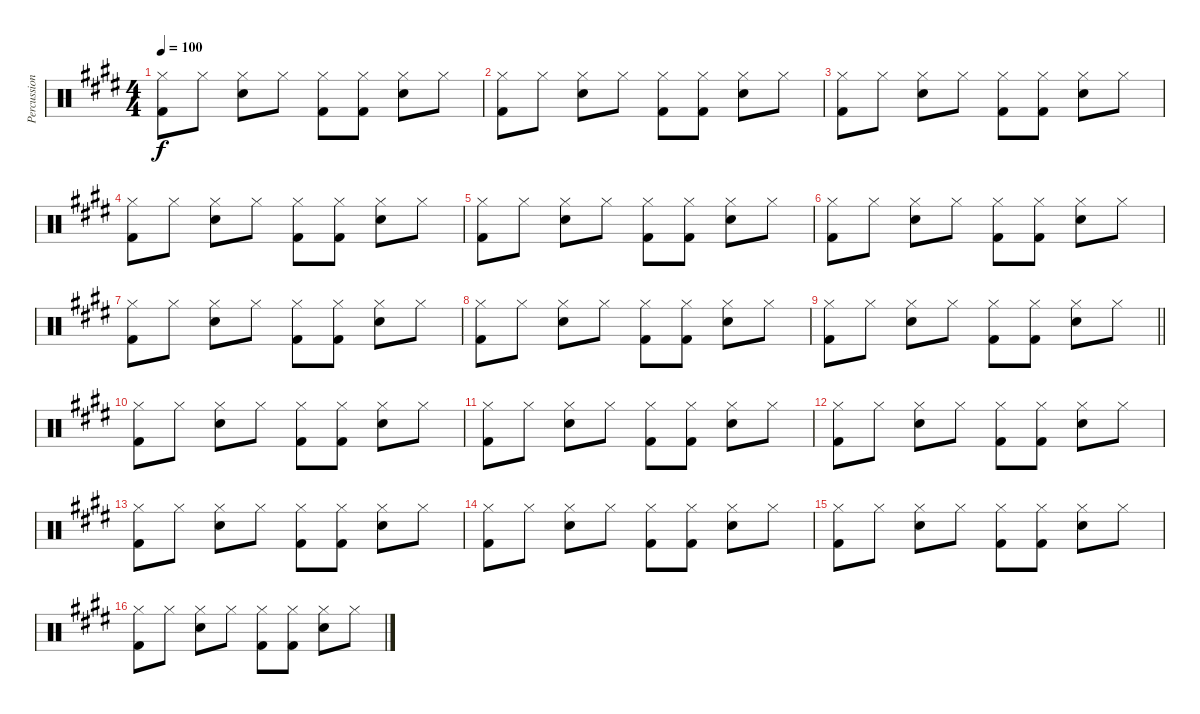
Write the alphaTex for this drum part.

\track ("Percussion" "Percussion") {instrument percussion}
\staff {score}
\articulation defaults
\ts (4 4)
\tempo 100
\clef neutral
\ks e
("Hi-Hat (closed)" "Kick (hit) 2").8{dy f} "Hi-Hat (closed)".8 ("Hi-Hat (closed)" "Snare (hit) 2").8 "Hi-Hat (closed)".8 ("Hi-Hat (closed)" "Kick (hit) 2").8 ("Hi-Hat (closed)" "Kick (hit) 2").8 ("Hi-Hat (closed)" "Snare (hit) 2").8 "Hi-Hat (closed)".8 |
("Hi-Hat (closed)" "Kick (hit) 2").8 "Hi-Hat (closed)".8 ("Hi-Hat (closed)" "Snare (hit) 2").8 "Hi-Hat (closed)".8 ("Hi-Hat (closed)" "Kick (hit) 2").8 ("Hi-Hat (closed)" "Kick (hit) 2").8 ("Hi-Hat (closed)" "Snare (hit) 2").8 "Hi-Hat (closed)".8 |
("Hi-Hat (closed)" "Kick (hit) 2").8 "Hi-Hat (closed)".8 ("Hi-Hat (closed)" "Snare (hit) 2").8 "Hi-Hat (closed)".8 ("Hi-Hat (closed)" "Kick (hit) 2").8 ("Hi-Hat (closed)" "Kick (hit) 2").8 ("Hi-Hat (closed)" "Snare (hit) 2").8 "Hi-Hat (closed)".8 |
("Hi-Hat (closed)" "Kick (hit) 2").8 "Hi-Hat (closed)".8 ("Hi-Hat (closed)" "Snare (hit) 2").8 "Hi-Hat (closed)".8 ("Hi-Hat (closed)" "Kick (hit) 2").8 ("Hi-Hat (closed)" "Kick (hit) 2").8 ("Hi-Hat (closed)" "Snare (hit) 2").8 "Hi-Hat (closed)".8 |
("Hi-Hat (closed)" "Kick (hit) 2").8 "Hi-Hat (closed)".8 ("Hi-Hat (closed)" "Snare (hit) 2").8 "Hi-Hat (closed)".8 ("Hi-Hat (closed)" "Kick (hit) 2").8 ("Hi-Hat (closed)" "Kick (hit) 2").8 ("Hi-Hat (closed)" "Snare (hit) 2").8 "Hi-Hat (closed)".8 |
("Hi-Hat (closed)" "Kick (hit) 2").8 "Hi-Hat (closed)".8 ("Hi-Hat (closed)" "Snare (hit) 2").8 "Hi-Hat (closed)".8 ("Hi-Hat (closed)" "Kick (hit) 2").8 ("Hi-Hat (closed)" "Kick (hit) 2").8 ("Hi-Hat (closed)" "Snare (hit) 2").8 "Hi-Hat (closed)".8 |
("Hi-Hat (closed)" "Kick (hit) 2").8 "Hi-Hat (closed)".8 ("Hi-Hat (closed)" "Snare (hit) 2").8 "Hi-Hat (closed)".8 ("Hi-Hat (closed)" "Kick (hit) 2").8 ("Hi-Hat (closed)" "Kick (hit) 2").8 ("Hi-Hat (closed)" "Snare (hit) 2").8 "Hi-Hat (closed)".8 |
("Hi-Hat (closed)" "Kick (hit) 2").8 "Hi-Hat (closed)".8 ("Hi-Hat (closed)" "Snare (hit) 2").8 "Hi-Hat (closed)".8 ("Hi-Hat (closed)" "Kick (hit) 2").8 ("Hi-Hat (closed)" "Kick (hit) 2").8 ("Hi-Hat (closed)" "Snare (hit) 2").8 "Hi-Hat (closed)".8 |
\barLineRight lightlight
("Hi-Hat (closed)" "Kick (hit) 2").8 "Hi-Hat (closed)".8 ("Hi-Hat (closed)" "Snare (hit) 2").8 "Hi-Hat (closed)".8 ("Hi-Hat (closed)" "Kick (hit) 2").8 ("Hi-Hat (closed)" "Kick (hit) 2").8 ("Hi-Hat (closed)" "Snare (hit) 2").8 "Hi-Hat (closed)".8 |
("Hi-Hat (closed)" "Kick (hit) 2").8 "Hi-Hat (closed)".8 ("Hi-Hat (closed)" "Snare (hit) 2").8 "Hi-Hat (closed)".8 ("Hi-Hat (closed)" "Kick (hit) 2").8 ("Hi-Hat (closed)" "Kick (hit) 2").8 ("Hi-Hat (closed)" "Snare (hit) 2").8 "Hi-Hat (closed)".8 |
("Hi-Hat (closed)" "Kick (hit) 2").8 "Hi-Hat (closed)".8 ("Hi-Hat (closed)" "Snare (hit) 2").8 "Hi-Hat (closed)".8 ("Hi-Hat (closed)" "Kick (hit) 2").8 ("Hi-Hat (closed)" "Kick (hit) 2").8 ("Hi-Hat (closed)" "Snare (hit) 2").8 "Hi-Hat (closed)".8 |
("Hi-Hat (closed)" "Kick (hit) 2").8 "Hi-Hat (closed)".8 ("Hi-Hat (closed)" "Snare (hit) 2").8 "Hi-Hat (closed)".8 ("Hi-Hat (closed)" "Kick (hit) 2").8 ("Hi-Hat (closed)" "Kick (hit) 2").8 ("Hi-Hat (closed)" "Snare (hit) 2").8 "Hi-Hat (closed)".8 |
("Hi-Hat (closed)" "Kick (hit) 2").8 "Hi-Hat (closed)".8 ("Hi-Hat (closed)" "Snare (hit) 2").8 "Hi-Hat (closed)".8 ("Hi-Hat (closed)" "Kick (hit) 2").8 ("Hi-Hat (closed)" "Kick (hit) 2").8 ("Hi-Hat (closed)" "Snare (hit) 2").8 "Hi-Hat (closed)".8 |
("Hi-Hat (closed)" "Kick (hit) 2").8 "Hi-Hat (closed)".8 ("Hi-Hat (closed)" "Snare (hit) 2").8 "Hi-Hat (closed)".8 ("Hi-Hat (closed)" "Kick (hit) 2").8 ("Hi-Hat (closed)" "Kick (hit) 2").8 ("Hi-Hat (closed)" "Snare (hit) 2").8 "Hi-Hat (closed)".8 |
("Hi-Hat (closed)" "Kick (hit) 2").8 "Hi-Hat (closed)".8 ("Hi-Hat (closed)" "Snare (hit) 2").8 "Hi-Hat (closed)".8 ("Hi-Hat (closed)" "Kick (hit) 2").8 ("Hi-Hat (closed)" "Kick (hit) 2").8 ("Hi-Hat (closed)" "Snare (hit) 2").8 "Hi-Hat (closed)".8 |
("Hi-Hat (closed)" "Kick (hit) 2").8 "Hi-Hat (closed)".8 ("Hi-Hat (closed)" "Snare (hit) 2").8 "Hi-Hat (closed)".8 ("Hi-Hat (closed)" "Kick (hit) 2").8 ("Hi-Hat (closed)" "Kick (hit) 2").8 ("Hi-Hat (closed)" "Snare (hit) 2").8 "Hi-Hat (closed)".8
